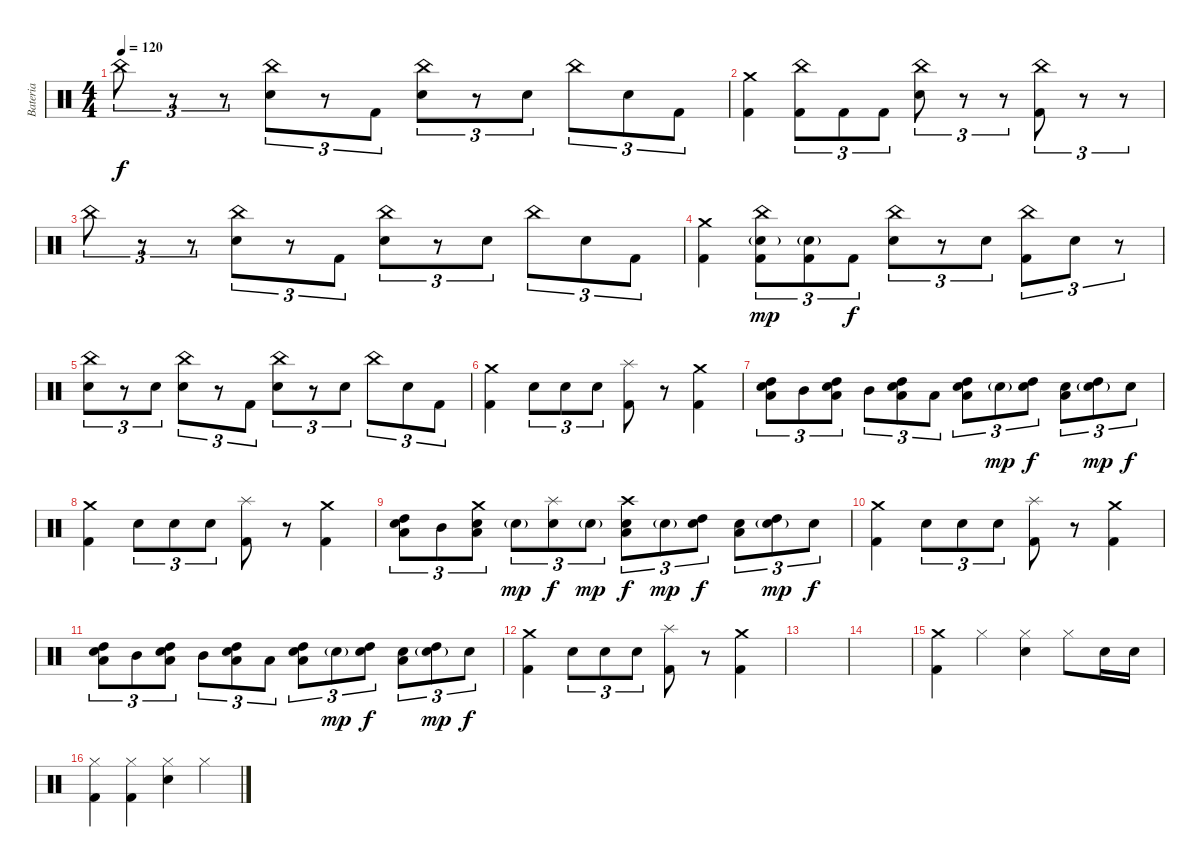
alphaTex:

\track ("Bateria" "Bateria") {instrument percussion}
\staff
\articulation defaults
\ts (4 4)
\tempo 120
\clef neutral
\ks c "China (hit)".8{tu (3 2) dy f}
r.8{tu (3 2)} r.8{tu (3 2)} ("China (hit)" "Electric Snare (hit)").8{tu (3 2)} r.8{tu (3 2)} "Kick (hit) 2".8{tu (3 2)} ("China (hit)" "Electric Snare (hit)").8{tu (3 2)} r.8{tu (3 2)} "Electric Snare (hit)".8{tu (3 2)} "China (hit)".8{tu (3 2)} "Electric Snare (hit)".8{tu (3 2)} "Kick (hit) 2".8{tu (3 2)} |
("Crash medium (hit)" "Kick (hit) 2").4 ("China (hit)" "Kick (hit) 2").8{tu (3 2)} "Kick (hit) 2".8{tu (3 2)} "Kick (hit) 2".8{tu (3 2)} ("China (hit)" "Electric Snare (hit)").8{tu (3 2)} r.8{tu (3 2)} r.8{tu (3 2)} ("China (hit)" "Kick (hit) 2").8{tu (3 2)} r.8{tu (3 2)} r.8{tu (3 2)} |
"China (hit)".8{tu (3 2)} r.8{tu (3 2)} r.8{tu (3 2)} ("China (hit)" "Electric Snare (hit)").8{tu (3 2)} r.8{tu (3 2)} "Kick (hit) 2".8{tu (3 2)} ("China (hit)" "Electric Snare (hit)").8{tu (3 2)} r.8{tu (3 2)} "Electric Snare (hit)".8{tu (3 2)} "China (hit)".8{tu (3 2)} "Electric Snare (hit)".8{tu (3 2)} "Kick (hit) 2".8{tu (3 2)} |
("Crash medium (hit)" "Kick (hit) 2").4 ("China (hit)" "Electric Snare (hit)"{g} "Kick (hit) 2").8{tu (3 2) dy mp} ("Electric Snare (hit)"{g} "Kick (hit) 2").8{tu (3 2)} "Kick (hit) 2".8{tu (3 2) dy f} ("China (hit)" "Electric Snare (hit)").8{tu (3 2)} r.8{tu (3 2)} "Electric Snare (hit)".8{tu (3 2)} ("China (hit)" "Kick (hit) 2").8{tu (3 2)} "Electric Snare (hit)".8{tu (3 2)} r.8{tu (3 2)} |
("China (hit)" "Electric Snare (hit)").8{tu (3 2)} r.8{tu (3 2)} "Electric Snare (hit)".8{tu (3 2)} ("China (hit)" "Electric Snare (hit)").8{tu (3 2)} r.8{tu (3 2)} "Kick (hit) 2".8{tu (3 2)} ("China (hit)" "Electric Snare (hit)").8{tu (3 2)} r.8{tu (3 2)} "Electric Snare (hit)".8{tu (3 2)} "China (hit)".8{tu (3 2)} "Electric Snare (hit)".8{tu (3 2)} "Kick (hit) 2".8{tu (3 2)} |
("Crash medium (hit)" "Kick (hit) 2").4 "Electric Snare (hit)".8{tu (3 2)} "Electric Snare (hit)".8{tu (3 2)} "Electric Snare (hit)".8{tu (3 2)} ("Splash (hit)" "Kick (hit) 2").8 r.8 ("Crash medium (hit)" "Kick (hit) 2").4 |
("High Tom (hit)" "Low Tom (hit)" "Electric Snare (hit)").8{tu (3 2)} "Mid Tom (hit)".8{tu (3 2)} ("High Tom (hit)" "Low Tom (hit)" "Electric Snare (hit)").8{tu (3 2)} "Mid Tom (hit)".8{tu (3 2)} ("High Tom (hit)" "Low Tom (hit)" "Electric Snare (hit)").8{tu (3 2)} "Low Tom (hit)".8{tu (3 2)} ("High Tom (hit)" "Electric Snare (hit)" "Low Tom (hit)").8{tu (3 2)} "Electric Snare (hit)"{g}.8{tu (3 2) dy mp} ("High Tom (hit)" "Electric Snare (hit)").8{tu (3 2) dy f} ("Electric Snare (hit)" "Low Tom (hit)").8{tu (3 2)} ("High Tom (hit)" "Electric Snare (hit)"{g}).8{tu (3 2) dy mp} "Electric Snare (hit)".8{tu (3 2) dy f} |
("Crash medium (hit)" "Kick (hit) 2").4 "Electric Snare (hit)".8{tu (3 2)} "Electric Snare (hit)".8{tu (3 2)} "Electric Snare (hit)".8{tu (3 2)} ("Splash (hit)" "Kick (hit) 2").8 r.8 ("Crash medium (hit)" "Kick (hit) 2").4 |
("High Tom (hit)" "Low Tom (hit)" "Electric Snare (hit)").8{tu (3 2)} "Mid Tom (hit)".8{tu (3 2)} ("Crash medium (hit)" "Low Tom (hit)" "Electric Snare (hit)").8{tu (3 2)} "Electric Snare (hit)"{g}.8{tu (3 2) dy mp} ("Splash (hit)" "Electric Snare (hit)").8{tu (3 2) dy f} "Electric Snare (hit)"{g}.8{tu (3 2) dy mp} ("Crash high (hit)" "Electric Snare (hit)" "Low Tom (hit)").8{tu (3 2) dy f} "Electric Snare (hit)"{g}.8{tu (3 2) dy mp} ("High Tom (hit)" "Electric Snare (hit)").8{tu (3 2) dy f} ("Electric Snare (hit)" "Low Tom (hit)").8{tu (3 2)} ("High Tom (hit)" "Electric Snare (hit)"{g}).8{tu (3 2) dy mp} "Electric Snare (hit)".8{tu (3 2) dy f} |
("Crash medium (hit)" "Kick (hit) 2").4 "Electric Snare (hit)".8{tu (3 2)} "Electric Snare (hit)".8{tu (3 2)} "Electric Snare (hit)".8{tu (3 2)} ("Splash (hit)" "Kick (hit) 2").8 r.8 ("Crash medium (hit)" "Kick (hit) 2").4 |
("High Tom (hit)" "Low Tom (hit)" "Electric Snare (hit)").8{tu (3 2)} "Mid Tom (hit)".8{tu (3 2)} ("High Tom (hit)" "Low Tom (hit)" "Electric Snare (hit)").8{tu (3 2)} "Mid Tom (hit)".8{tu (3 2)} ("High Tom (hit)" "Low Tom (hit)" "Electric Snare (hit)").8{tu (3 2)} "Low Tom (hit)".8{tu (3 2)} ("High Tom (hit)" "Electric Snare (hit)" "Low Tom (hit)").8{tu (3 2)} "Electric Snare (hit)"{g}.8{tu (3 2) dy mp} ("High Tom (hit)" "Electric Snare (hit)").8{tu (3 2) dy f} ("Electric Snare (hit)" "Low Tom (hit)").8{tu (3 2)} ("High Tom (hit)" "Electric Snare (hit)"{g}).8{tu (3 2) dy mp} "Electric Snare (hit)".8{tu (3 2) dy f} |
("Crash medium (hit)" "Kick (hit) 2").4 "Electric Snare (hit)".8{tu (3 2)} "Electric Snare (hit)".8{tu (3 2)} "Electric Snare (hit)".8{tu (3 2)} ("Splash (hit)" "Kick (hit) 2").8 r.8 ("Crash medium (hit)" "Kick (hit) 2").4 |
|
|
("Crash medium (hit)" "Kick (hit) 2").4 "Hi-Hat (closed)".4 ("Hi-Hat (closed)" "Electric Snare (hit)").4 "Hi-Hat (closed)".8 "Electric Snare (hit)".16 "Electric Snare (hit)".16 |
("Hi-Hat (closed)" "Kick (hit) 2").4 ("Hi-Hat (closed)" "Kick (hit) 2").4 ("Hi-Hat (closed)" "Electric Snare (hit)").4 "Hi-Hat (closed)".4
